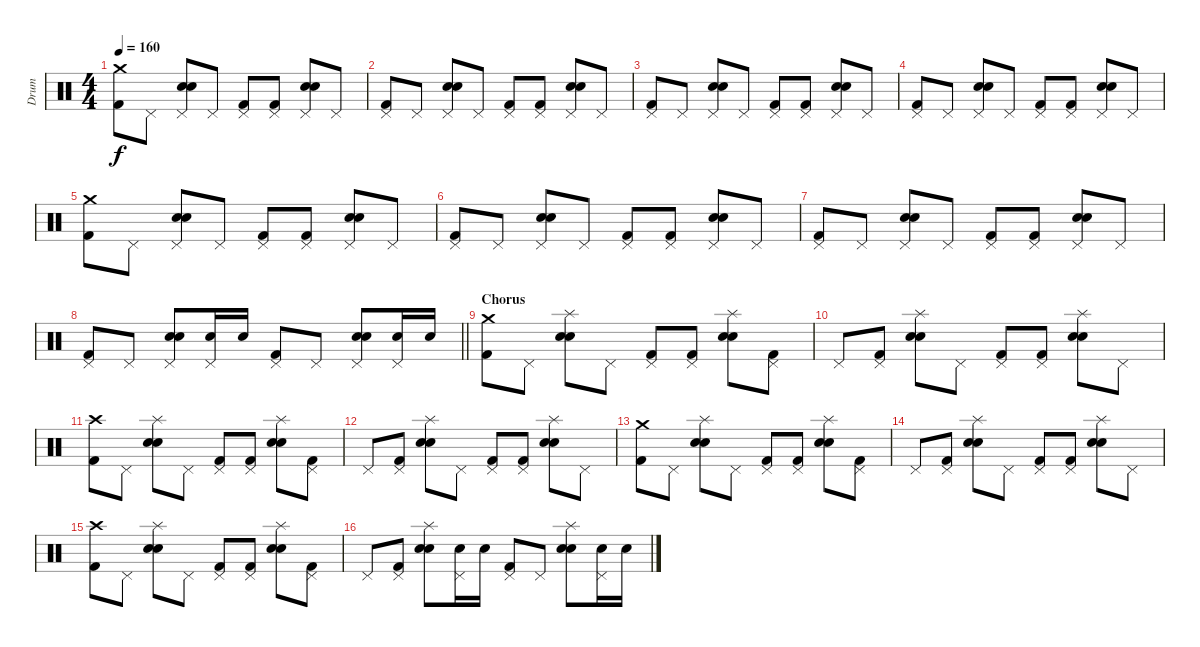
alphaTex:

\track ("Drum" "Drum") {instrument percussion}
\staff {score}
\articulation defaults
\ts (4 4)
\tempo 160
\clef neutral
\ks c
("Crash medium (hit)" "Kick (hit) 2").8{dy f} "Pedal Hi-Hat (hit)".8 ("Pedal Hi-Hat (hit)" "Electric Snare (hit)" "Snare (hit) 2").8 "Pedal Hi-Hat (hit)".8 ("Pedal Hi-Hat (hit)" "Kick (hit) 2").8 ("Pedal Hi-Hat (hit)" "Kick (hit) 2").8 ("Pedal Hi-Hat (hit)" "Electric Snare (hit)" "Snare (hit) 2").8 "Pedal Hi-Hat (hit)".8 |
("Pedal Hi-Hat (hit)" "Kick (hit) 2").8 "Pedal Hi-Hat (hit)".8 ("Pedal Hi-Hat (hit)" "Electric Snare (hit)" "Snare (hit) 2").8 "Pedal Hi-Hat (hit)".8 ("Pedal Hi-Hat (hit)" "Kick (hit) 2").8 ("Pedal Hi-Hat (hit)" "Kick (hit) 2").8 ("Pedal Hi-Hat (hit)" "Electric Snare (hit)" "Snare (hit) 2").8 "Pedal Hi-Hat (hit)".8 |
("Pedal Hi-Hat (hit)" "Kick (hit) 2").8 "Pedal Hi-Hat (hit)".8 ("Pedal Hi-Hat (hit)" "Electric Snare (hit)" "Snare (hit) 2").8 "Pedal Hi-Hat (hit)".8 ("Pedal Hi-Hat (hit)" "Kick (hit) 2").8 ("Pedal Hi-Hat (hit)" "Kick (hit) 2").8 ("Pedal Hi-Hat (hit)" "Electric Snare (hit)" "Snare (hit) 2").8 "Pedal Hi-Hat (hit)".8 |
("Pedal Hi-Hat (hit)" "Kick (hit) 2").8 "Pedal Hi-Hat (hit)".8 ("Pedal Hi-Hat (hit)" "Electric Snare (hit)" "Snare (hit) 2").8 "Pedal Hi-Hat (hit)".8 ("Pedal Hi-Hat (hit)" "Kick (hit) 2").8 ("Pedal Hi-Hat (hit)" "Kick (hit) 2").8 ("Pedal Hi-Hat (hit)" "Electric Snare (hit)" "Snare (hit) 2").8 "Pedal Hi-Hat (hit)".8 |
("Crash medium (hit)" "Kick (hit) 2").8 "Pedal Hi-Hat (hit)".8 ("Pedal Hi-Hat (hit)" "Electric Snare (hit)" "Snare (hit) 2").8 "Pedal Hi-Hat (hit)".8 ("Pedal Hi-Hat (hit)" "Kick (hit) 2").8 ("Pedal Hi-Hat (hit)" "Kick (hit) 2").8 ("Pedal Hi-Hat (hit)" "Electric Snare (hit)" "Snare (hit) 2").8 "Pedal Hi-Hat (hit)".8 |
("Pedal Hi-Hat (hit)" "Kick (hit) 2").8 "Pedal Hi-Hat (hit)".8 ("Pedal Hi-Hat (hit)" "Electric Snare (hit)" "Snare (hit) 2").8 "Pedal Hi-Hat (hit)".8 ("Pedal Hi-Hat (hit)" "Kick (hit) 2").8 ("Pedal Hi-Hat (hit)" "Kick (hit) 2").8 ("Pedal Hi-Hat (hit)" "Electric Snare (hit)" "Snare (hit) 2").8 "Pedal Hi-Hat (hit)".8 |
("Pedal Hi-Hat (hit)" "Kick (hit) 2").8 "Pedal Hi-Hat (hit)".8 ("Pedal Hi-Hat (hit)" "Electric Snare (hit)" "Snare (hit) 2").8 "Pedal Hi-Hat (hit)".8 ("Pedal Hi-Hat (hit)" "Kick (hit) 2").8 ("Pedal Hi-Hat (hit)" "Kick (hit) 2").8 ("Pedal Hi-Hat (hit)" "Electric Snare (hit)" "Snare (hit) 2").8 "Pedal Hi-Hat (hit)".8 |
\barLineRight lightlight
("Pedal Hi-Hat (hit)" "Kick (hit) 2").8 "Pedal Hi-Hat (hit)".8 ("Pedal Hi-Hat (hit)" "Electric Snare (hit)" "Snare (hit) 2").8 ("Pedal Hi-Hat (hit)" "Electric Snare (hit)").16 "Electric Snare (hit)".16 ("Pedal Hi-Hat (hit)" "Kick (hit) 2").8 "Pedal Hi-Hat (hit)".8 ("Pedal Hi-Hat (hit)" "Electric Snare (hit)" "Snare (hit) 2").8 ("Pedal Hi-Hat (hit)" "Electric Snare (hit)").16 "Electric Snare (hit)".16 |
\section ("" "Chorus")
("Crash medium (hit)" "Kick (hit) 2").8 "Pedal Hi-Hat (hit)".8 ("Splash (hit)" "Electric Snare (hit)" "Snare (hit) 2").8 "Pedal Hi-Hat (hit)".8 ("Pedal Hi-Hat (hit)" "Kick (hit) 2").8 ("Pedal Hi-Hat (hit)" "Kick (hit) 2").8 ("Splash (hit)" "Electric Snare (hit)" "Snare (hit) 2").8 ("Pedal Hi-Hat (hit)" "Kick (hit) 2").8 |
"Pedal Hi-Hat (hit)".8 ("Pedal Hi-Hat (hit)" "Kick (hit) 2").8 ("Splash (hit)" "Electric Snare (hit)" "Snare (hit) 2").8 "Pedal Hi-Hat (hit)".8 ("Pedal Hi-Hat (hit)" "Kick (hit) 2").8 ("Pedal Hi-Hat (hit)" "Kick (hit) 2").8 ("Splash (hit)" "Electric Snare (hit)" "Snare (hit) 2").8 "Pedal Hi-Hat (hit)".8 |
("Crash high (hit)" "Kick (hit) 2").8 "Pedal Hi-Hat (hit)".8 ("Splash (hit)" "Electric Snare (hit)" "Snare (hit) 2").8 "Pedal Hi-Hat (hit)".8 ("Pedal Hi-Hat (hit)" "Kick (hit) 2").8 ("Pedal Hi-Hat (hit)" "Kick (hit) 2").8 ("Splash (hit)" "Electric Snare (hit)" "Snare (hit) 2").8 ("Pedal Hi-Hat (hit)" "Kick (hit) 2").8 |
"Pedal Hi-Hat (hit)".8 ("Pedal Hi-Hat (hit)" "Kick (hit) 2").8 ("Splash (hit)" "Electric Snare (hit)" "Snare (hit) 2").8 "Pedal Hi-Hat (hit)".8 ("Pedal Hi-Hat (hit)" "Kick (hit) 2").8 ("Pedal Hi-Hat (hit)" "Kick (hit) 2").8 ("Splash (hit)" "Electric Snare (hit)" "Snare (hit) 2").8 "Pedal Hi-Hat (hit)".8 |
("Crash medium (hit)" "Kick (hit) 2").8 "Pedal Hi-Hat (hit)".8 ("Splash (hit)" "Electric Snare (hit)" "Snare (hit) 2").8 "Pedal Hi-Hat (hit)".8 ("Pedal Hi-Hat (hit)" "Kick (hit) 2").8 ("Pedal Hi-Hat (hit)" "Kick (hit) 2").8 ("Splash (hit)" "Electric Snare (hit)" "Snare (hit) 2").8 ("Pedal Hi-Hat (hit)" "Kick (hit) 2").8 |
"Pedal Hi-Hat (hit)".8 ("Pedal Hi-Hat (hit)" "Kick (hit) 2").8 ("Splash (hit)" "Electric Snare (hit)" "Snare (hit) 2").8 "Pedal Hi-Hat (hit)".8 ("Pedal Hi-Hat (hit)" "Kick (hit) 2").8 ("Pedal Hi-Hat (hit)" "Kick (hit) 2").8 ("Splash (hit)" "Electric Snare (hit)" "Snare (hit) 2").8 "Pedal Hi-Hat (hit)".8 |
("Crash high (hit)" "Kick (hit) 2").8 "Pedal Hi-Hat (hit)".8 ("Splash (hit)" "Electric Snare (hit)" "Snare (hit) 2").8 "Pedal Hi-Hat (hit)".8 ("Pedal Hi-Hat (hit)" "Kick (hit) 2").8 ("Pedal Hi-Hat (hit)" "Kick (hit) 2").8 ("Splash (hit)" "Electric Snare (hit)" "Snare (hit) 2").8 ("Pedal Hi-Hat (hit)" "Kick (hit) 2").8 |
"Pedal Hi-Hat (hit)".8 ("Pedal Hi-Hat (hit)" "Kick (hit) 2").8 ("Splash (hit)" "Electric Snare (hit)" "Snare (hit) 2").8 ("Pedal Hi-Hat (hit)" "Electric Snare (hit)").16 "Electric Snare (hit)".16 ("Pedal Hi-Hat (hit)" "Kick (hit) 2").8 "Pedal Hi-Hat (hit)".8 ("Splash (hit)" "Electric Snare (hit)" "Snare (hit) 2").8 ("Pedal Hi-Hat (hit)" "Electric Snare (hit)").16 "Electric Snare (hit)".16
